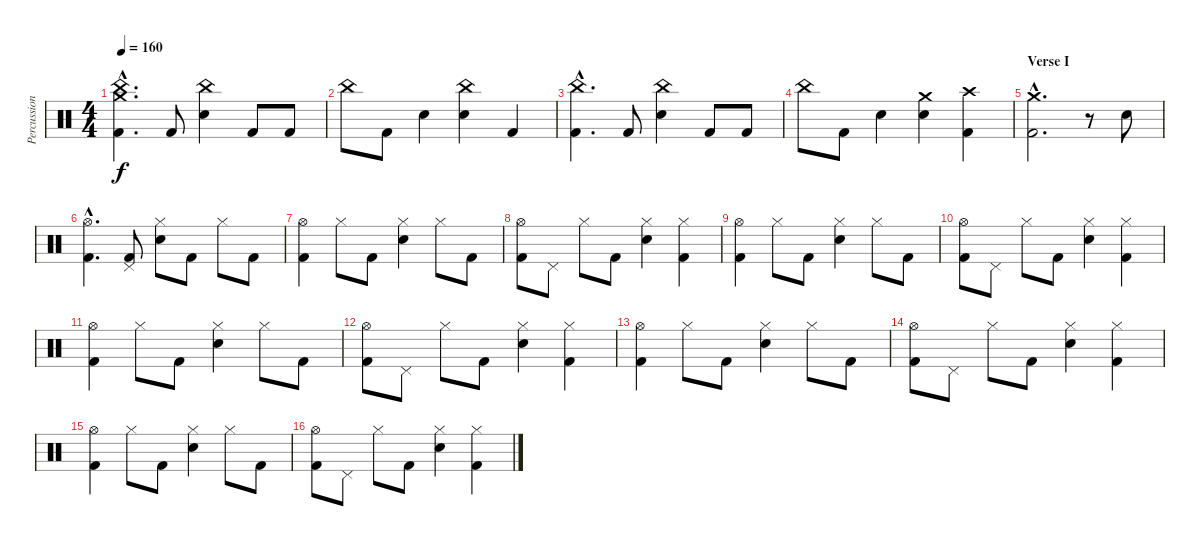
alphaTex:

\track ("Percussion" "Percussion") {instrument percussion}
\staff {score}
\articulation defaults
\ts (4 4)
\tempo 160
\clef neutral
\ks c
("China (hit)"{hac} "Crash medium (hit)"{hac} "Kick (hit) 2"{hac}).4{d dy f} "Kick (hit) 2".8 ("China (hit)" "Electric Snare (hit)").4 "Kick (hit) 2".8 "Kick (hit) 2".8 |
"China (hit)".8 "Kick (hit) 2".8 "Electric Snare (hit)".4 ("China (hit)" "Electric Snare (hit)").4 "Kick (hit) 2".4 |
("China (hit)"{hac} "Kick (hit) 2"{hac}).4{d} "Kick (hit) 2".8 ("China (hit)" "Electric Snare (hit)").4 "Kick (hit) 2".8 "Kick (hit) 2".8 |
"China (hit)".8 "Kick (hit) 2".8 "Electric Snare (hit)".4 ("Crash medium (hit)" "Electric Snare (hit)").4 ("Crash high (hit)" "Kick (hit) 2").4 |
\section ("" "Verse I")
("Crash medium (hit)"{hac} "Kick (hit) 2"{hac}).2{d} r.8 "Electric Snare (hit)".8 |
("Hi-Hat (open)"{hac} "Kick (hit) 2"{hac}).4{d} ("Pedal Hi-Hat (hit)" "Kick (hit) 2").8 ("Hi-Hat (closed)" "Electric Snare (hit)").8 "Kick (hit) 2".8 "Hi-Hat (closed)".8 "Kick (hit) 2".8 |
("Hi-Hat (open)" "Kick (hit) 2").4 "Hi-Hat (closed)".8 "Kick (hit) 2".8 ("Hi-Hat (closed)" "Electric Snare (hit)").4 "Hi-Hat (closed)".8 "Kick (hit) 2".8 |
("Hi-Hat (open)" "Kick (hit) 2").8 "Pedal Hi-Hat (hit)".8 "Hi-Hat (closed)".8 "Kick (hit) 2".8 ("Hi-Hat (closed)" "Electric Snare (hit)").4 ("Hi-Hat (closed)" "Kick (hit) 2").4 |
("Hi-Hat (open)" "Kick (hit) 2").4 "Hi-Hat (closed)".8 "Kick (hit) 2".8 ("Hi-Hat (closed)" "Electric Snare (hit)").4 "Hi-Hat (closed)".8 "Kick (hit) 2".8 |
("Hi-Hat (open)" "Kick (hit) 2").8 "Pedal Hi-Hat (hit)".8 "Hi-Hat (closed)".8 "Kick (hit) 2".8 ("Hi-Hat (closed)" "Electric Snare (hit)").4 ("Hi-Hat (closed)" "Kick (hit) 2").4 |
("Hi-Hat (open)" "Kick (hit) 2").4 "Hi-Hat (closed)".8 "Kick (hit) 2".8 ("Hi-Hat (closed)" "Electric Snare (hit)").4 "Hi-Hat (closed)".8 "Kick (hit) 2".8 |
("Hi-Hat (open)" "Kick (hit) 2").8 "Pedal Hi-Hat (hit)".8 "Hi-Hat (closed)".8 "Kick (hit) 2".8 ("Hi-Hat (closed)" "Electric Snare (hit)").4 ("Hi-Hat (closed)" "Kick (hit) 2").4 |
("Hi-Hat (open)" "Kick (hit) 2").4 "Hi-Hat (closed)".8 "Kick (hit) 2".8 ("Hi-Hat (closed)" "Electric Snare (hit)").4 "Hi-Hat (closed)".8 "Kick (hit) 2".8 |
("Hi-Hat (open)" "Kick (hit) 2").8 "Pedal Hi-Hat (hit)".8 "Hi-Hat (closed)".8 "Kick (hit) 2".8 ("Hi-Hat (closed)" "Electric Snare (hit)").4 ("Hi-Hat (closed)" "Kick (hit) 2").4 |
("Hi-Hat (open)" "Kick (hit) 2").4 "Hi-Hat (closed)".8 "Kick (hit) 2".8 ("Hi-Hat (closed)" "Electric Snare (hit)").4 "Hi-Hat (closed)".8 "Kick (hit) 2".8 |
("Hi-Hat (open)" "Kick (hit) 2").8 "Pedal Hi-Hat (hit)".8 "Hi-Hat (closed)".8 "Kick (hit) 2".8 ("Hi-Hat (closed)" "Electric Snare (hit)").4 ("Hi-Hat (closed)" "Kick (hit) 2").4
